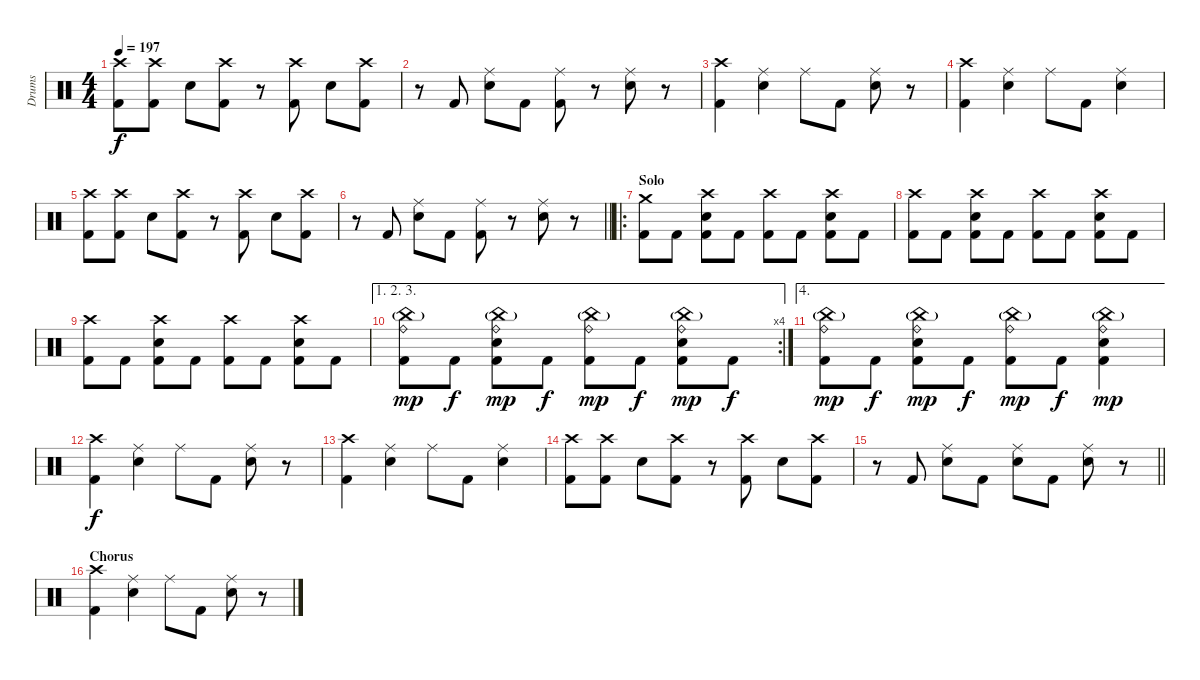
\track ("Drums" "Drums") {instrument percussion}
\staff {score}
\articulation defaults
\ts (4 4)
\tempo 197
\clef neutral
\ks c
("Crash high (hit)" "Kick (hit) 2").8{dy f} ("Crash high (hit)" "Kick (hit) 2").8 "Electric Snare (hit)".8 ("Crash high (hit)" "Kick (hit) 2").8 r.8 ("Crash high (hit)" "Kick (hit) 2").8 "Electric Snare (hit)".8 ("Crash high (hit)" "Kick (hit) 2").8 |
r.8 "Kick (hit) 2".8 ("Ride (middle)" "Electric Snare (hit)").8 "Kick (hit) 2".8 ("Ride (middle)" "Kick (hit) 2").8 r.8 ("Ride (middle)" "Electric Snare (hit)").8 r.8 |
("Crash high (hit)" "Kick (hit) 2").4 ("Ride (middle)" "Electric Snare (hit)").4 "Ride (middle)".8 "Kick (hit) 2".8 ("Ride (middle)" "Electric Snare (hit)").8 r.8 |
("Crash high (hit)" "Kick (hit) 2").4 ("Ride (middle)" "Electric Snare (hit)").4 "Ride (middle)".8 "Kick (hit) 2".8 ("Ride (middle)" "Electric Snare (hit)").4 |
("Crash high (hit)" "Kick (hit) 2").8 ("Crash high (hit)" "Kick (hit) 2").8 "Electric Snare (hit)".8 ("Crash high (hit)" "Kick (hit) 2").8 r.8 ("Crash high (hit)" "Kick (hit) 2").8 "Electric Snare (hit)".8 ("Crash high (hit)" "Kick (hit) 2").8 |
\barLineRight lightlight
r.8 "Kick (hit) 2".8 ("Ride (middle)" "Electric Snare (hit)").8 "Kick (hit) 2".8 ("Ride (middle)" "Kick (hit) 2").8 r.8 ("Ride (middle)" "Electric Snare (hit)").8 r.8 |
\ro
\section ("" "Solo")
("Crash medium (hit)" "Kick (hit) 2").8 "Kick (hit) 2".8 ("Crash high (hit)" "Electric Snare (hit)" "Kick (hit) 2").8 "Kick (hit) 2".8 ("Crash high (hit)" "Kick (hit) 2").8 "Kick (hit) 2".8 ("Crash high (hit)" "Electric Snare (hit)" "Kick (hit) 2").8 "Kick (hit) 2".8 |
("Crash high (hit)" "Kick (hit) 2").8 "Kick (hit) 2".8 ("Crash high (hit)" "Electric Snare (hit)" "Kick (hit) 2").8 "Kick (hit) 2".8 ("Crash high (hit)" "Kick (hit) 2").8 "Kick (hit) 2".8 ("Crash high (hit)" "Electric Snare (hit)" "Kick (hit) 2").8 "Kick (hit) 2".8 |
("Crash high (hit)" "Kick (hit) 2").8 "Kick (hit) 2".8 ("Crash high (hit)" "Electric Snare (hit)" "Kick (hit) 2").8 "Kick (hit) 2".8 ("Crash high (hit)" "Kick (hit) 2").8 "Kick (hit) 2".8 ("Crash high (hit)" "Electric Snare (hit)" "Kick (hit) 2").8 "Kick (hit) 2".8 |
\ae (1 2 3)
\rc 4
("China (hit)"{g} "Ride (bell)" "Kick (hit) 2").8{dy mp} "Kick (hit) 2".8{dy f} ("China (hit)"{g} "Ride (bell)" "Electric Snare (hit)" "Kick (hit) 2").8{dy mp} "Kick (hit) 2".8{dy f} ("China (hit)"{g} "Ride (bell)" "Kick (hit) 2").8{dy mp} "Kick (hit) 2".8{dy f} ("China (hit)"{g} "Ride (bell)" "Electric Snare (hit)" "Kick (hit) 2").8{dy mp} "Kick (hit) 2".8{dy f} |
\ae 4
("China (hit)"{g} "Ride (bell)" "Kick (hit) 2").8{dy mp} "Kick (hit) 2".8{dy f} ("China (hit)"{g} "Ride (bell)" "Electric Snare (hit)" "Kick (hit) 2").8{dy mp} "Kick (hit) 2".8{dy f} ("China (hit)"{g} "Ride (bell)" "Kick (hit) 2").8{dy mp} "Kick (hit) 2".8{dy f} ("China (hit)"{g} "Ride (bell)" "Electric Snare (hit)" "Kick (hit) 2").4{dy mp} |
("Crash high (hit)" "Kick (hit) 2").4{dy f} ("Ride (middle)" "Electric Snare (hit)").4 "Ride (middle)".8 "Kick (hit) 2".8 ("Ride (middle)" "Electric Snare (hit)").8 r.8 |
("Crash high (hit)" "Kick (hit) 2").4 ("Ride (middle)" "Electric Snare (hit)").4 "Ride (middle)".8 "Kick (hit) 2".8 ("Ride (middle)" "Electric Snare (hit)").4 |
("Crash high (hit)" "Kick (hit) 2").8 ("Crash high (hit)" "Kick (hit) 2").8 "Electric Snare (hit)".8 ("Crash high (hit)" "Kick (hit) 2").8 r.8 ("Crash high (hit)" "Kick (hit) 2").8 "Electric Snare (hit)".8 ("Crash high (hit)" "Kick (hit) 2").8 |
\barLineRight lightlight
r.8 "Kick (hit) 2".8 ("Ride (middle)" "Electric Snare (hit)").8 "Kick (hit) 2".8 ("Ride (middle)" "Electric Snare (hit)").8 "Kick (hit) 2".8 ("Ride (middle)" "Electric Snare (hit)").8 r.8 |
\section ("" "Chorus")
("Crash high (hit)" "Kick (hit) 2").4 ("Ride (middle)" "Electric Snare (hit)").4 "Ride (middle)".8 "Kick (hit) 2".8 ("Ride (middle)" "Electric Snare (hit)").8 r.8
